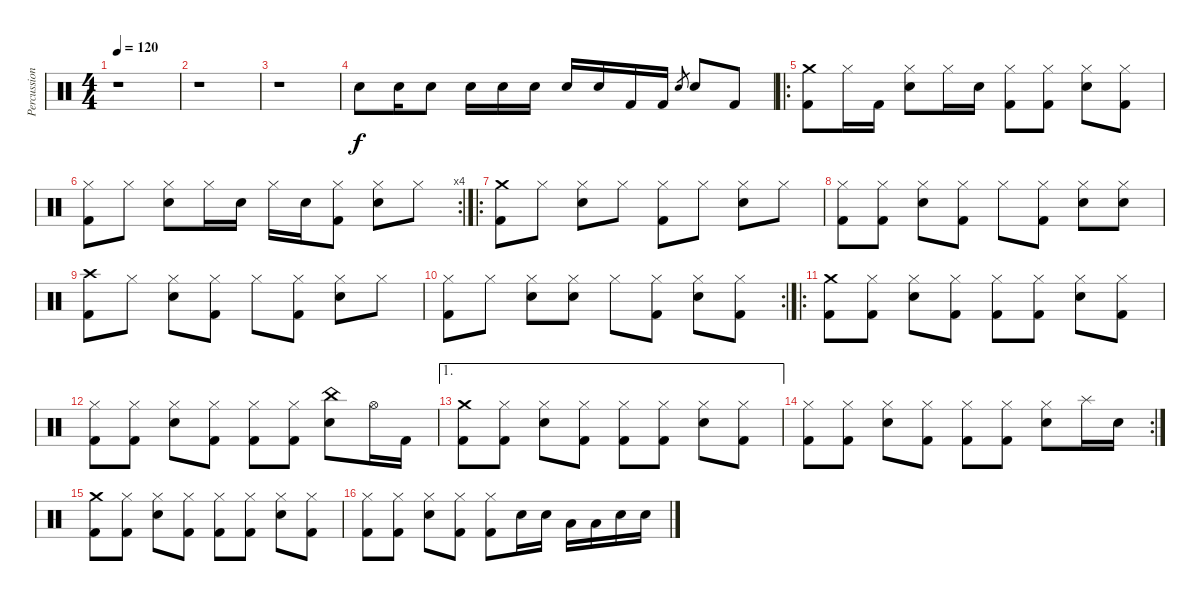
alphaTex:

\track ("Percussions" "Percussion") {instrument percussion}
\staff {score}
\articulation defaults
\ts (4 4)
\tempo 120
\clef neutral
\ks c
r.1{dy f} |
r.1 |
r.1 |
"Snare (hit) 2".8 "Snare (hit) 2".16 "Snare (hit) 2".8 "Snare (hit) 2".16 "Snare (hit) 2".16 "Snare (hit) 2".16 "Snare (hit) 2".16 "Snare (hit) 2".16 "Kick (hit) 2".16 "Kick (hit) 2".16 "Snare (hit) 2".8{gr} "Snare (hit) 2".8 "Kick (hit) 2".8 |
\ro
("Crash medium (hit)" "Kick (hit) 2").8 "Hi-Hat (closed)".16 "Kick (hit) 2".16 ("Hi-Hat (closed)" "Snare (hit) 2").8 "Hi-Hat (closed)".16 "Snare (hit) 2".16 ("Hi-Hat (closed)" "Kick (hit) 2").8 ("Hi-Hat (closed)" "Kick (hit) 2").8 ("Hi-Hat (closed)" "Snare (hit) 2").8 ("Hi-Hat (closed)" "Kick (hit) 2").8 |
\rc 4
("Hi-Hat (closed)" "Kick (hit) 2").8 "Hi-Hat (closed)".8 ("Hi-Hat (closed)" "Snare (hit) 2").8 "Hi-Hat (closed)".16 "Snare (hit) 2".16 "Hi-Hat (closed)".16 "Snare (hit) 2".16 ("Hi-Hat (closed)" "Kick (hit) 2").8 ("Hi-Hat (closed)" "Snare (hit) 2").8 "Hi-Hat (closed)".8 |
\ro
("Crash medium (hit)" "Kick (hit) 2").8 "Hi-Hat (closed)".8 ("Hi-Hat (closed)" "Snare (hit) 2").8 "Hi-Hat (closed)".8 ("Hi-Hat (closed)" "Kick (hit) 2").8 "Hi-Hat (closed)".8 ("Hi-Hat (closed)" "Snare (hit) 2").8 "Hi-Hat (closed)".8 |
("Hi-Hat (closed)" "Kick (hit) 2").8 ("Hi-Hat (closed)" "Kick (hit) 2").8 ("Hi-Hat (closed)" "Snare (hit) 2").8 ("Hi-Hat (closed)" "Kick (hit) 2").8 "Hi-Hat (closed)".8 ("Hi-Hat (closed)" "Kick (hit) 2").8 ("Hi-Hat (closed)" "Snare (hit) 2").8 ("Hi-Hat (closed)" "Snare (hit) 2").8 |
("Crash high (hit)" "Kick (hit) 2").8 "Hi-Hat (closed)".8 ("Hi-Hat (closed)" "Snare (hit) 2").8 ("Hi-Hat (closed)" "Kick (hit) 2").8 "Hi-Hat (closed)".8 ("Hi-Hat (closed)" "Kick (hit) 2").8 ("Hi-Hat (closed)" "Snare (hit) 2").8 "Hi-Hat (closed)".8 |
\rc 2
("Hi-Hat (closed)" "Kick (hit) 2").8 "Hi-Hat (closed)".8 ("Hi-Hat (closed)" "Snare (hit) 2").8 ("Hi-Hat (closed)" "Snare (hit) 2").8 "Hi-Hat (closed)".8 ("Hi-Hat (closed)" "Kick (hit) 2").8 ("Hi-Hat (closed)" "Snare (hit) 2").8 ("Hi-Hat (closed)" "Kick (hit) 2").8 |
\ro
("Crash medium (hit)" "Kick (hit) 2").8 ("Hi-Hat (closed)" "Kick (hit) 2").8 ("Hi-Hat (closed)" "Snare (hit) 2").8 ("Hi-Hat (closed)" "Kick (hit) 2").8 ("Hi-Hat (closed)" "Kick (hit) 2").8 ("Hi-Hat (closed)" "Kick (hit) 2").8 ("Hi-Hat (closed)" "Snare (hit) 2").8 ("Hi-Hat (closed)" "Kick (hit) 2").8 |
("Hi-Hat (closed)" "Kick (hit) 2").8 ("Hi-Hat (closed)" "Kick (hit) 2").8 ("Hi-Hat (closed)" "Snare (hit) 2").8 ("Hi-Hat (closed)" "Kick (hit) 2").8 ("Hi-Hat (closed)" "Kick (hit) 2").8 ("Hi-Hat (closed)" "Kick (hit) 2").8 ("China (hit)" "Snare (hit) 2").8 "Hi-Hat (open)".16 "Kick (hit) 2".16 |
\ae 1
("Crash medium (hit)" "Kick (hit) 2").8 ("Hi-Hat (closed)" "Kick (hit) 2").8 ("Hi-Hat (closed)" "Snare (hit) 2").8 ("Hi-Hat (closed)" "Kick (hit) 2").8 ("Hi-Hat (closed)" "Kick (hit) 2").8 ("Hi-Hat (closed)" "Kick (hit) 2").8 ("Hi-Hat (closed)" "Snare (hit) 2").8 ("Hi-Hat (closed)" "Kick (hit) 2").8 |
\rc 2
("Hi-Hat (closed)" "Kick (hit) 2").8 ("Hi-Hat (closed)" "Kick (hit) 2").8 ("Hi-Hat (closed)" "Snare (hit) 2").8 ("Hi-Hat (closed)" "Kick (hit) 2").8 ("Hi-Hat (closed)" "Kick (hit) 2").8 ("Hi-Hat (closed)" "Kick (hit) 2").8 ("Hi-Hat (closed)" "Snare (hit) 2").8 "Splash (hit)".16 "Snare (hit) 2".16 |
("Crash medium (hit)" "Kick (hit) 2").8 ("Hi-Hat (closed)" "Kick (hit) 2").8 ("Hi-Hat (closed)" "Snare (hit) 2").8 ("Hi-Hat (closed)" "Kick (hit) 2").8 ("Hi-Hat (closed)" "Kick (hit) 2").8 ("Hi-Hat (closed)" "Kick (hit) 2").8 ("Hi-Hat (closed)" "Snare (hit) 2").8 ("Hi-Hat (closed)" "Kick (hit) 2").8 |
("Hi-Hat (closed)" "Kick (hit) 2").8 ("Hi-Hat (closed)" "Kick (hit) 2").8 ("Hi-Hat (closed)" "Snare (hit) 2").8 ("Hi-Hat (closed)" "Kick (hit) 2").8 ("Hi-Hat (closed)" "Kick (hit) 2").8 "Snare (hit) 2".16 "Snare (hit) 2".16 "Low Floor Tom (hit)".16 "Low Floor Tom (hit)".16 "Snare (hit) 2".16 "Snare (hit) 2".16
